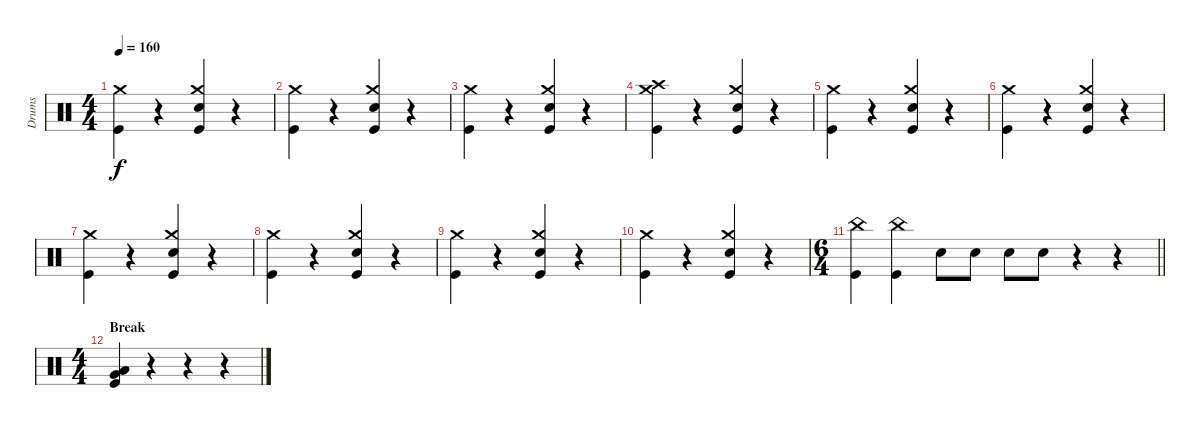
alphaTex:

\track ("Drums" "Drums") {instrument percussion}
\staff {score}
\articulation defaults
\ts (4 4)
\tempo 160
\clef neutral
\ks c
("Kick (hit)" "Crash medium (hit)").4{dy f} r.4 ("Kick (hit)" "Electric Snare (hit)" "Crash medium (hit)").4 r.4 |
("Kick (hit)" "Crash medium (hit)").4 r.4 ("Kick (hit)" "Electric Snare (hit)" "Crash medium (hit)").4 r.4 |
("Kick (hit)" "Crash medium (hit)").4 r.4 ("Kick (hit)" "Electric Snare (hit)" "Crash medium (hit)").4 r.4 |
("Kick (hit)" "Crash high (hit)" "Crash medium (hit)").4 r.4 ("Kick (hit)" "Electric Snare (hit)" "Crash medium (hit)").4 r.4 |
("Kick (hit)" "Crash medium (hit)").4 r.4 ("Kick (hit)" "Electric Snare (hit)" "Crash medium (hit)").4 r.4 |
("Kick (hit)" "Crash medium (hit)").4 r.4 ("Kick (hit)" "Electric Snare (hit)" "Crash medium (hit)").4 r.4 |
("Kick (hit)" "Crash medium (hit)").4 r.4 ("Kick (hit)" "Electric Snare (hit)" "Crash medium (hit)").4 r.4 |
("Kick (hit)" "Crash medium (hit)").4 r.4 ("Kick (hit)" "Electric Snare (hit)" "Crash medium (hit)").4 r.4 |
("Kick (hit)" "Crash medium (hit)").4 r.4 ("Kick (hit)" "Electric Snare (hit)" "Crash medium (hit)").4 r.4 |
("Kick (hit)" "Crash medium (hit)").4 r.4 ("Kick (hit)" "Electric Snare (hit)" "Crash medium (hit)").4 r.4 |
\ts (6 4)
\barLineRight lightlight
("Kick (hit)" "China (hit)").4 ("Kick (hit)" "China (hit)").4 "Electric Snare (hit)".8 "Electric Snare (hit)".8 "Electric Snare (hit)".8 "Electric Snare (hit)".8 r.4 r.4 |
\ts (4 4)
\section ("" "Break")
("Kick (hit)" "Very Low Tom (hit)" "Low Tom (hit)").4 r.4 r.4 r.4
